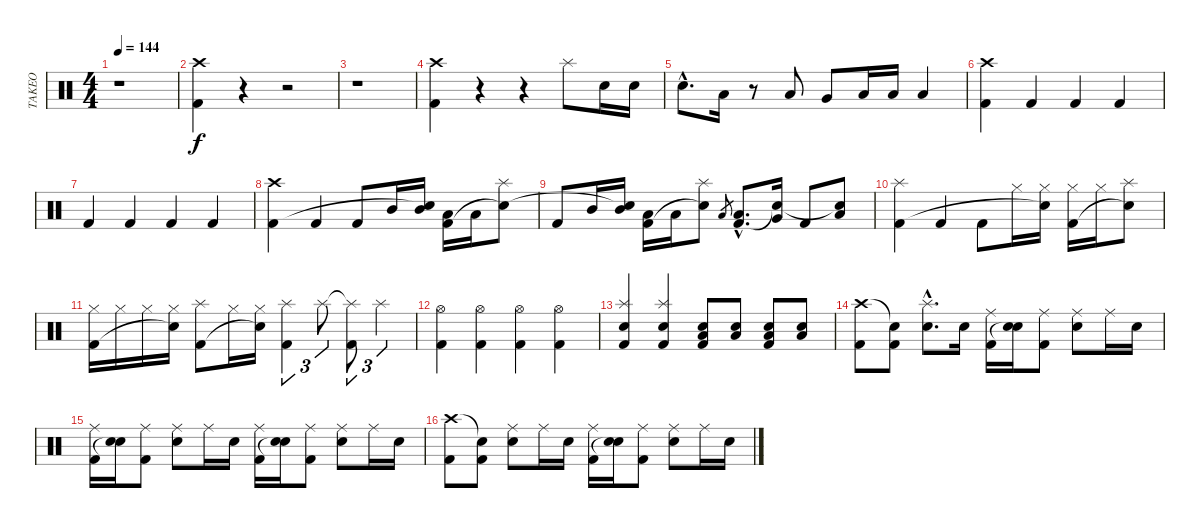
\track ("TAKEO" "TAKEO") {instrument percussion}
\staff {score}
\articulation defaults
\ts (4 4)
\tempo 144
\clef neutral
\ks c
r.1{dy f} |
("Crash high (hit)" "Kick (hit) 2").4 r.4 r.2 |
r.1 |
("Crash high (hit)" "Kick (hit) 2").4 r.4 r.4 "Splash (hit)".8 "Electric Snare (hit)".16 "Electric Snare (hit)".16 |
"Electric Snare (hit)"{hac}.8{d} "Low Tom (hit)".16 r.8 "Low Tom (hit)".8 "Very Low Tom (hit)".8 "Low Floor Tom (hit)".16 "Low Floor Tom (hit)".16 "Low Floor Tom (hit)".4 |
("Crash high (hit)" "Kick (hit) 2").4 "Kick (hit) 2".4 "Kick (hit) 2".4 "Kick (hit) 2".4 |
"Kick (hit) 2".4 "Kick (hit) 2".4 "Kick (hit) 2".4 "Kick (hit) 2".4 |
("Crash high (hit)" "Kick (hit) 2").4 "Kick (hit) 2".4 "Kick (hit) 2".8 "Mid Tom (hit)".16 ("Mid Tom (hit)" "Snare (hit)"{t}).16 ("Low Tom (hit)" "Kick (hit) 2").16 "Low Tom (hit)".16 ("Splash (hit)" "Snare (hit)"{t}).8 |
"Kick (hit) 2".8 "Mid Tom (hit)".16 ("Mid Tom (hit)" "Snare (hit)"{t}).16 ("Low Tom (hit)" "Kick (hit) 2").16 "Low Tom (hit)".16 ("Splash (hit)" "Snare (hit)"{t}).8 "Low Tom (hit)".8{gr} ("Low Tom (hit)"{hac} "Kick (hit) 2"{hac}).8{d} ("Very Low Tom (hit)" "Snare (hit)"{t}).16 "Kick (hit) 2".8 ("Low Floor Tom (hit)" "Snare (hit)"{t}).8 |
("Splash (hit)" "Kick (hit) 2").4 "Kick (hit) 2".4 "Kick (hit) 2".8 "Hi-Hat (closed)".16 ("Hi-Hat (closed)" "Snare (hit)"{t}).16 ("Hi-Hat (closed)" "Kick (hit) 2").16 "Hi-Hat (closed)".16 ("Splash (hit)" "Snare (hit)"{t}).8 |
("Hi-Hat (closed)" "Kick (hit) 2").16 "Hi-Hat (closed)".16 "Hi-Hat (closed)".16 ("Hi-Hat (closed)" "Snare (hit)"{t}).16 ("Splash (hit)" "Kick (hit) 2").8 "Hi-Hat (closed)".16 ("Hi-Hat (closed)" "Snare (hit)"{t}).16 ("Splash (hit)" "Kick (hit) 2").4{tu (3 2)} "Splash (hit)".8{tu (3 2)} ("Splash (hit)"{t} "Kick (hit) 2").8{tu (3 2)} "Splash (hit)".4{tu (3 2)} |
("Hi-Hat (open)" "Kick (hit) 2").4 ("Hi-Hat (open)" "Kick (hit) 2").4 ("Hi-Hat (open)" "Kick (hit) 2").4 ("Hi-Hat (open)" "Kick (hit) 2").4 |
("Splash (hit)" "Electric Snare (hit)" "Kick (hit) 2").4 ("Splash (hit)" "Electric Snare (hit)" "Kick (hit) 2").4 ("Electric Snare (hit)" "Low Floor Tom (hit)" "Kick (hit) 2").8 ("Electric Snare (hit)" "Low Floor Tom (hit)").8 ("Low Floor Tom (hit)" "Electric Snare (hit)" "Kick (hit) 2").8 ("Electric Snare (hit)" "Low Floor Tom (hit)").8 |
("Crash high (hit)" "Kick (hit) 2").8 ("Snare (hit)"{t} "Kick (hit) 2").8 ("Splash (hit)"{hac} "Electric Snare (hit)"{hac}).8{d} "Electric Snare (hit)".16 ("Ride (middle)" "Kick (hit) 2").16 ("Electric Snare (hit)" "Snare (hit)"{t}).16 ("Ride (middle)" "Kick (hit) 2").8 ("Ride (middle)" "Electric Snare (hit)").8 "Ride (middle)".16 "Electric Snare (hit)".16 |
("Ride (middle)" "Kick (hit) 2").16 ("Electric Snare (hit)" "Snare (hit)"{t}).16 ("Ride (middle)" "Kick (hit) 2").8 ("Ride (middle)" "Electric Snare (hit)").8 "Ride (middle)".16 "Electric Snare (hit)".16 ("Ride (middle)" "Kick (hit) 2").16 ("Electric Snare (hit)" "Snare (hit)"{t}).16 ("Ride (middle)" "Kick (hit) 2").8 ("Ride (middle)" "Electric Snare (hit)").8 "Ride (middle)".16 "Electric Snare (hit)".16 |
("Crash high (hit)" "Kick (hit) 2").8 ("Snare (hit)"{t} "Kick (hit) 2").8 ("Ride (middle)" "Electric Snare (hit)").8 "Ride (middle)".16 "Electric Snare (hit)".16 ("Ride (middle)" "Kick (hit) 2").16 ("Electric Snare (hit)" "Snare (hit)"{t}).16 ("Ride (middle)" "Kick (hit) 2").8 ("Ride (middle)" "Electric Snare (hit)").8 "Ride (middle)".16 "Electric Snare (hit)".16
